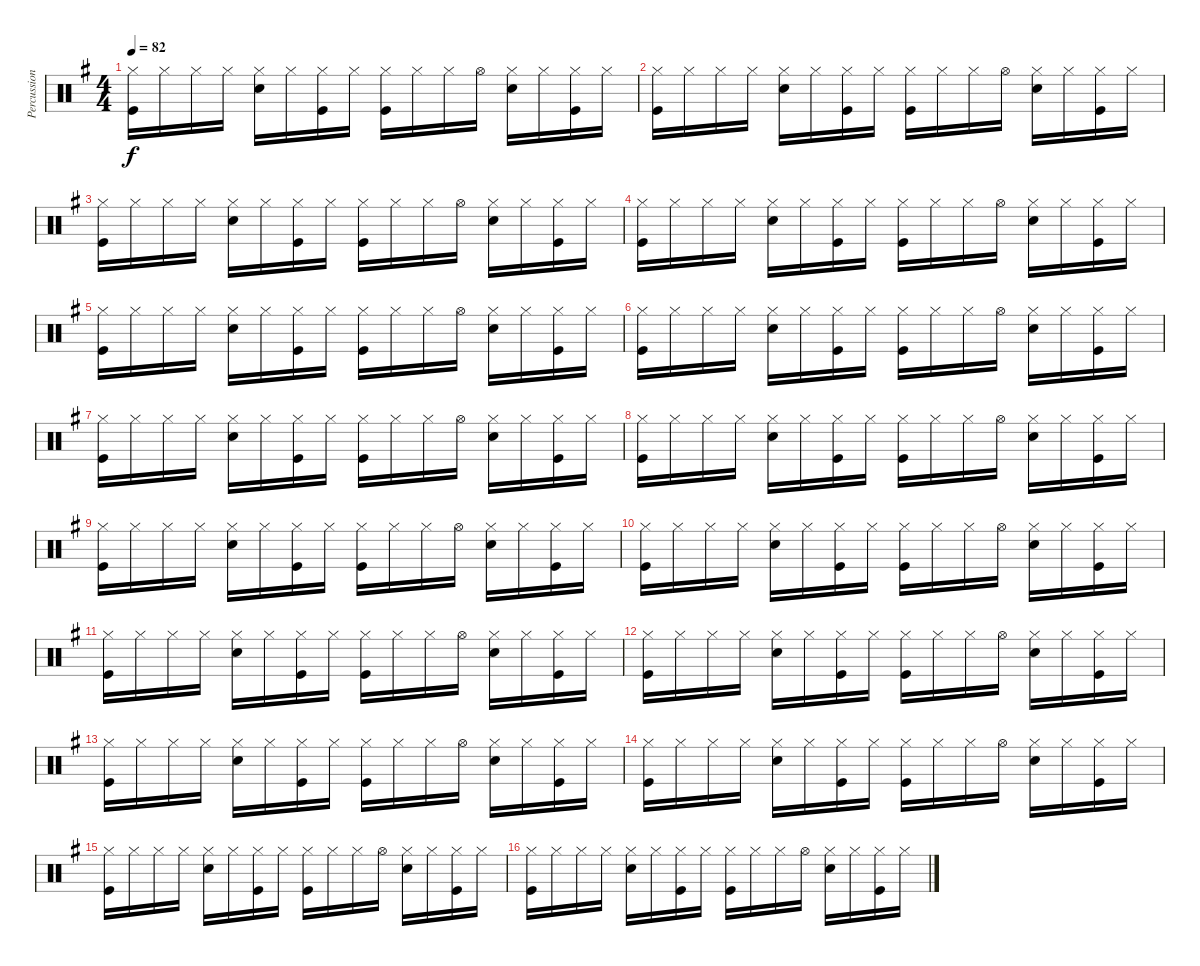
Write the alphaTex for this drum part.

\track ("Percussions" "Percussion") {instrument percussion}
\staff {score}
\articulation defaults
\ts (4 4)
\tempo 82
\clef neutral
\ks g
("Hi-Hat (closed)" "Kick (hit)").16{dy f} "Hi-Hat (closed)".16 "Hi-Hat (closed)".16 "Hi-Hat (closed)".16 ("Hi-Hat (closed)" "Hand Clap (hit)").16 "Hi-Hat (closed)".16 ("Hi-Hat (closed)" "Kick (hit)").16 "Hi-Hat (closed)".16 ("Hi-Hat (closed)" "Kick (hit)").16 "Hi-Hat (closed)".16 "Hi-Hat (closed)".16 "Hi-Hat (open)".16 ("Hi-Hat (closed)" "Hand Clap (hit)").16 "Hi-Hat (closed)".16 ("Hi-Hat (closed)" "Kick (hit)").16 "Hi-Hat (closed)".16 |
("Hi-Hat (closed)" "Kick (hit)").16 "Hi-Hat (closed)".16 "Hi-Hat (closed)".16 "Hi-Hat (closed)".16 ("Hi-Hat (closed)" "Hand Clap (hit)").16 "Hi-Hat (closed)".16 ("Hi-Hat (closed)" "Kick (hit)").16 "Hi-Hat (closed)".16 ("Hi-Hat (closed)" "Kick (hit)").16 "Hi-Hat (closed)".16 "Hi-Hat (closed)".16 "Hi-Hat (open)".16 ("Hi-Hat (closed)" "Hand Clap (hit)").16 "Hi-Hat (closed)".16 ("Hi-Hat (closed)" "Kick (hit)").16 "Hi-Hat (closed)".16 |
("Hi-Hat (closed)" "Kick (hit)").16 "Hi-Hat (closed)".16 "Hi-Hat (closed)".16 "Hi-Hat (closed)".16 ("Hi-Hat (closed)" "Hand Clap (hit)").16 "Hi-Hat (closed)".16 ("Hi-Hat (closed)" "Kick (hit)").16 "Hi-Hat (closed)".16 ("Hi-Hat (closed)" "Kick (hit)").16 "Hi-Hat (closed)".16 "Hi-Hat (closed)".16 "Hi-Hat (open)".16 ("Hi-Hat (closed)" "Hand Clap (hit)").16 "Hi-Hat (closed)".16 ("Hi-Hat (closed)" "Kick (hit)").16 "Hi-Hat (closed)".16 |
("Hi-Hat (closed)" "Kick (hit)").16 "Hi-Hat (closed)".16 "Hi-Hat (closed)".16 "Hi-Hat (closed)".16 ("Hi-Hat (closed)" "Hand Clap (hit)").16 "Hi-Hat (closed)".16 ("Hi-Hat (closed)" "Kick (hit)").16 "Hi-Hat (closed)".16 ("Hi-Hat (closed)" "Kick (hit)").16 "Hi-Hat (closed)".16 "Hi-Hat (closed)".16 "Hi-Hat (open)".16 ("Hi-Hat (closed)" "Hand Clap (hit)").16 "Hi-Hat (closed)".16 ("Hi-Hat (closed)" "Kick (hit)").16 "Hi-Hat (closed)".16 |
("Hi-Hat (closed)" "Kick (hit)").16 "Hi-Hat (closed)".16 "Hi-Hat (closed)".16 "Hi-Hat (closed)".16 ("Hi-Hat (closed)" "Hand Clap (hit)").16 "Hi-Hat (closed)".16 ("Hi-Hat (closed)" "Kick (hit)").16 "Hi-Hat (closed)".16 ("Hi-Hat (closed)" "Kick (hit)").16 "Hi-Hat (closed)".16 "Hi-Hat (closed)".16 "Hi-Hat (open)".16 ("Hi-Hat (closed)" "Hand Clap (hit)").16 "Hi-Hat (closed)".16 ("Hi-Hat (closed)" "Kick (hit)").16 "Hi-Hat (closed)".16 |
("Hi-Hat (closed)" "Kick (hit)").16 "Hi-Hat (closed)".16 "Hi-Hat (closed)".16 "Hi-Hat (closed)".16 ("Hi-Hat (closed)" "Hand Clap (hit)").16 "Hi-Hat (closed)".16 ("Hi-Hat (closed)" "Kick (hit)").16 "Hi-Hat (closed)".16 ("Hi-Hat (closed)" "Kick (hit)").16 "Hi-Hat (closed)".16 "Hi-Hat (closed)".16 "Hi-Hat (open)".16 ("Hi-Hat (closed)" "Hand Clap (hit)").16 "Hi-Hat (closed)".16 ("Hi-Hat (closed)" "Kick (hit)").16 "Hi-Hat (closed)".16 |
("Hi-Hat (closed)" "Kick (hit)").16 "Hi-Hat (closed)".16 "Hi-Hat (closed)".16 "Hi-Hat (closed)".16 ("Hi-Hat (closed)" "Hand Clap (hit)").16 "Hi-Hat (closed)".16 ("Hi-Hat (closed)" "Kick (hit)").16 "Hi-Hat (closed)".16 ("Hi-Hat (closed)" "Kick (hit)").16 "Hi-Hat (closed)".16 "Hi-Hat (closed)".16 "Hi-Hat (open)".16 ("Hi-Hat (closed)" "Hand Clap (hit)").16 "Hi-Hat (closed)".16 ("Hi-Hat (closed)" "Kick (hit)").16 "Hi-Hat (closed)".16 |
("Hi-Hat (closed)" "Kick (hit)").16 "Hi-Hat (closed)".16 "Hi-Hat (closed)".16 "Hi-Hat (closed)".16 ("Hi-Hat (closed)" "Hand Clap (hit)").16 "Hi-Hat (closed)".16 ("Hi-Hat (closed)" "Kick (hit)").16 "Hi-Hat (closed)".16 ("Hi-Hat (closed)" "Kick (hit)").16 "Hi-Hat (closed)".16 "Hi-Hat (closed)".16 "Hi-Hat (open)".16 ("Hi-Hat (closed)" "Hand Clap (hit)").16 "Hi-Hat (closed)".16 ("Hi-Hat (closed)" "Kick (hit)").16 "Hi-Hat (closed)".16 |
("Hi-Hat (closed)" "Kick (hit)").16 "Hi-Hat (closed)".16 "Hi-Hat (closed)".16 "Hi-Hat (closed)".16 ("Hi-Hat (closed)" "Hand Clap (hit)").16 "Hi-Hat (closed)".16 ("Hi-Hat (closed)" "Kick (hit)").16 "Hi-Hat (closed)".16 ("Hi-Hat (closed)" "Kick (hit)").16 "Hi-Hat (closed)".16 "Hi-Hat (closed)".16 "Hi-Hat (open)".16 ("Hi-Hat (closed)" "Hand Clap (hit)").16 "Hi-Hat (closed)".16 ("Hi-Hat (closed)" "Kick (hit)").16 "Hi-Hat (closed)".16 |
("Hi-Hat (closed)" "Kick (hit)").16 "Hi-Hat (closed)".16 "Hi-Hat (closed)".16 "Hi-Hat (closed)".16 ("Hi-Hat (closed)" "Hand Clap (hit)").16 "Hi-Hat (closed)".16 ("Hi-Hat (closed)" "Kick (hit)").16 "Hi-Hat (closed)".16 ("Hi-Hat (closed)" "Kick (hit)").16 "Hi-Hat (closed)".16 "Hi-Hat (closed)".16 "Hi-Hat (open)".16 ("Hi-Hat (closed)" "Hand Clap (hit)").16 "Hi-Hat (closed)".16 ("Hi-Hat (closed)" "Kick (hit)").16 "Hi-Hat (closed)".16 |
("Hi-Hat (closed)" "Kick (hit)").16 "Hi-Hat (closed)".16 "Hi-Hat (closed)".16 "Hi-Hat (closed)".16 ("Hi-Hat (closed)" "Hand Clap (hit)").16 "Hi-Hat (closed)".16 ("Hi-Hat (closed)" "Kick (hit)").16 "Hi-Hat (closed)".16 ("Hi-Hat (closed)" "Kick (hit)").16 "Hi-Hat (closed)".16 "Hi-Hat (closed)".16 "Hi-Hat (open)".16 ("Hi-Hat (closed)" "Hand Clap (hit)").16 "Hi-Hat (closed)".16 ("Hi-Hat (closed)" "Kick (hit)").16 "Hi-Hat (closed)".16 |
("Hi-Hat (closed)" "Kick (hit)").16 "Hi-Hat (closed)".16 "Hi-Hat (closed)".16 "Hi-Hat (closed)".16 ("Hi-Hat (closed)" "Hand Clap (hit)").16 "Hi-Hat (closed)".16 ("Hi-Hat (closed)" "Kick (hit)").16 "Hi-Hat (closed)".16 ("Hi-Hat (closed)" "Kick (hit)").16 "Hi-Hat (closed)".16 "Hi-Hat (closed)".16 "Hi-Hat (open)".16 ("Hi-Hat (closed)" "Hand Clap (hit)").16 "Hi-Hat (closed)".16 ("Hi-Hat (closed)" "Kick (hit)").16 "Hi-Hat (closed)".16 |
("Hi-Hat (closed)" "Kick (hit)").16 "Hi-Hat (closed)".16 "Hi-Hat (closed)".16 "Hi-Hat (closed)".16 ("Hi-Hat (closed)" "Hand Clap (hit)").16 "Hi-Hat (closed)".16 ("Hi-Hat (closed)" "Kick (hit)").16 "Hi-Hat (closed)".16 ("Hi-Hat (closed)" "Kick (hit)").16 "Hi-Hat (closed)".16 "Hi-Hat (closed)".16 "Hi-Hat (open)".16 ("Hi-Hat (closed)" "Hand Clap (hit)").16 "Hi-Hat (closed)".16 ("Hi-Hat (closed)" "Kick (hit)").16 "Hi-Hat (closed)".16 |
("Hi-Hat (closed)" "Kick (hit)").16 "Hi-Hat (closed)".16 "Hi-Hat (closed)".16 "Hi-Hat (closed)".16 ("Hi-Hat (closed)" "Hand Clap (hit)").16 "Hi-Hat (closed)".16 ("Hi-Hat (closed)" "Kick (hit)").16 "Hi-Hat (closed)".16 ("Hi-Hat (closed)" "Kick (hit)").16 "Hi-Hat (closed)".16 "Hi-Hat (closed)".16 "Hi-Hat (open)".16 ("Hi-Hat (closed)" "Hand Clap (hit)").16 "Hi-Hat (closed)".16 ("Hi-Hat (closed)" "Kick (hit)").16 "Hi-Hat (closed)".16 |
("Hi-Hat (closed)" "Kick (hit)").16 "Hi-Hat (closed)".16 "Hi-Hat (closed)".16 "Hi-Hat (closed)".16 ("Hi-Hat (closed)" "Hand Clap (hit)").16 "Hi-Hat (closed)".16 ("Hi-Hat (closed)" "Kick (hit)").16 "Hi-Hat (closed)".16 ("Hi-Hat (closed)" "Kick (hit)").16 "Hi-Hat (closed)".16 "Hi-Hat (closed)".16 "Hi-Hat (open)".16 ("Hi-Hat (closed)" "Hand Clap (hit)").16 "Hi-Hat (closed)".16 ("Hi-Hat (closed)" "Kick (hit)").16 "Hi-Hat (closed)".16 |
("Hi-Hat (closed)" "Kick (hit)").16 "Hi-Hat (closed)".16 "Hi-Hat (closed)".16 "Hi-Hat (closed)".16 ("Hi-Hat (closed)" "Hand Clap (hit)").16 "Hi-Hat (closed)".16 ("Hi-Hat (closed)" "Kick (hit)").16 "Hi-Hat (closed)".16 ("Hi-Hat (closed)" "Kick (hit)").16 "Hi-Hat (closed)".16 "Hi-Hat (closed)".16 "Hi-Hat (open)".16 ("Hi-Hat (closed)" "Hand Clap (hit)").16 "Hi-Hat (closed)".16 ("Hi-Hat (closed)" "Kick (hit)").16 "Hi-Hat (closed)".16
